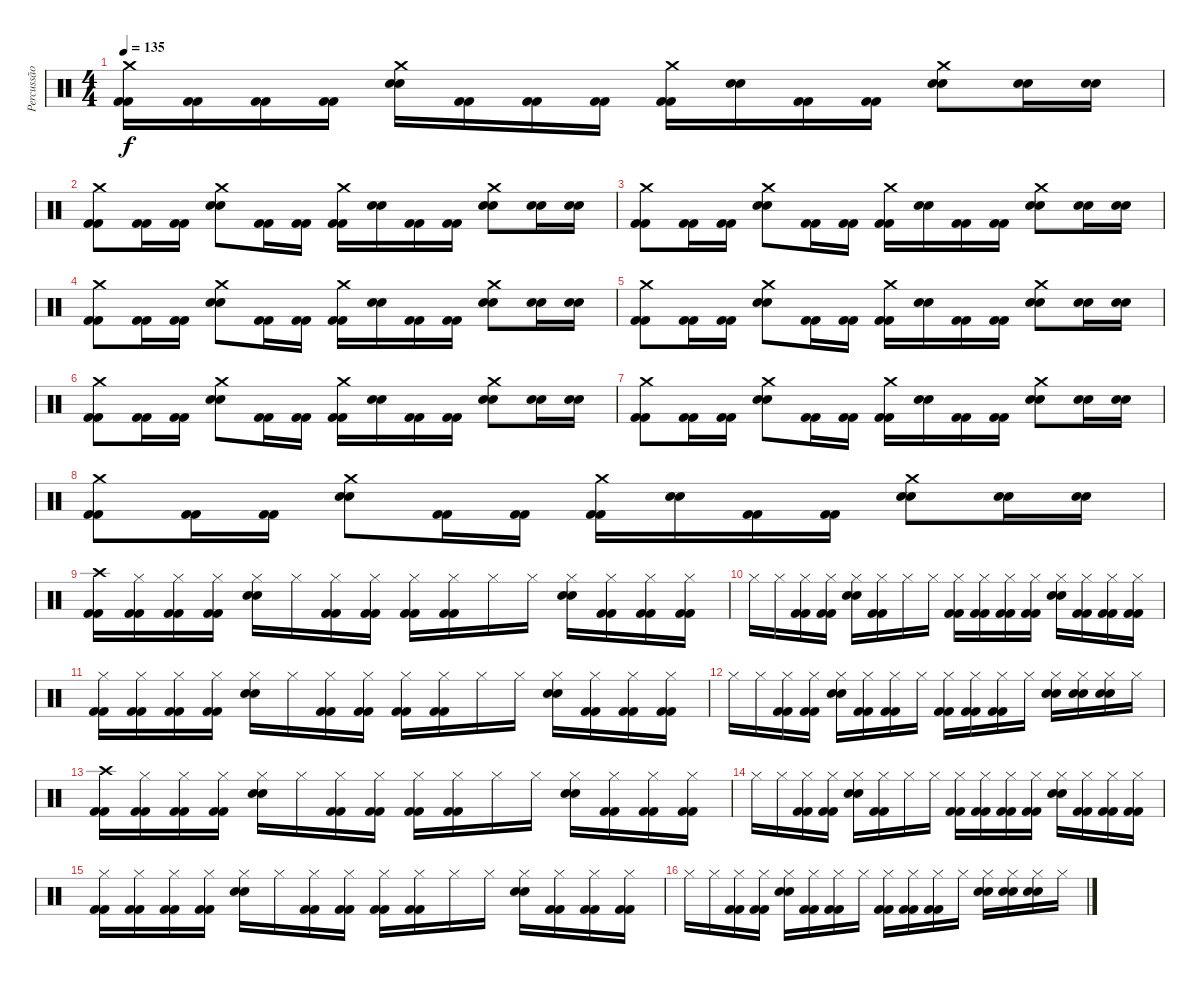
\track ("Percussão" "Percussão") {instrument percussion}
\staff {score}
\articulation defaults
\ts (4 4)
\tempo 135
\clef neutral
\ks c
("Crash medium (hit)" "Kick (hit) 2" "Kick (hit) 2").16{dy f} ("Kick (hit) 2" "Kick (hit) 2").16 ("Kick (hit) 2" "Kick (hit) 2").16 ("Kick (hit) 2" "Kick (hit) 2").16 ("Crash medium (hit)" "Electric Snare (hit)" "Electric Snare (hit)").16 ("Kick (hit) 2" "Kick (hit) 2").16 ("Kick (hit) 2" "Kick (hit) 2").16 ("Kick (hit) 2" "Kick (hit) 2").16 ("Crash medium (hit)" "Kick (hit) 2" "Kick (hit) 2").16 ("Electric Snare (hit)" "Electric Snare (hit)").16 ("Kick (hit) 2" "Kick (hit) 2").16 ("Kick (hit) 2" "Kick (hit) 2").16 ("Crash medium (hit)" "Electric Snare (hit)" "Electric Snare (hit)").8 ("Electric Snare (hit)" "Electric Snare (hit)").16 ("Electric Snare (hit)" "Electric Snare (hit)").16 |
("Crash medium (hit)" "Kick (hit) 2" "Kick (hit) 2").8 ("Kick (hit) 2" "Kick (hit) 2").16 ("Kick (hit) 2" "Kick (hit) 2").16 ("Crash medium (hit)" "Electric Snare (hit)" "Electric Snare (hit)").8 ("Kick (hit) 2" "Kick (hit) 2").16 ("Kick (hit) 2" "Kick (hit) 2").16 ("Crash medium (hit)" "Kick (hit) 2" "Kick (hit) 2").16 ("Electric Snare (hit)" "Electric Snare (hit)").16 ("Kick (hit) 2" "Kick (hit) 2").16 ("Kick (hit) 2" "Kick (hit) 2").16 ("Crash medium (hit)" "Electric Snare (hit)" "Electric Snare (hit)").8 ("Electric Snare (hit)" "Electric Snare (hit)").16 ("Electric Snare (hit)" "Electric Snare (hit)").16 |
("Crash medium (hit)" "Kick (hit) 2" "Kick (hit) 2").8 ("Kick (hit) 2" "Kick (hit) 2").16 ("Kick (hit) 2" "Kick (hit) 2").16 ("Crash medium (hit)" "Electric Snare (hit)" "Electric Snare (hit)").8 ("Kick (hit) 2" "Kick (hit) 2").16 ("Kick (hit) 2" "Kick (hit) 2").16 ("Crash medium (hit)" "Kick (hit) 2" "Kick (hit) 2").16 ("Electric Snare (hit)" "Electric Snare (hit)").16 ("Kick (hit) 2" "Kick (hit) 2").16 ("Kick (hit) 2" "Kick (hit) 2").16 ("Crash medium (hit)" "Electric Snare (hit)" "Electric Snare (hit)").8 ("Electric Snare (hit)" "Electric Snare (hit)").16 ("Electric Snare (hit)" "Electric Snare (hit)").16 |
("Crash medium (hit)" "Kick (hit) 2" "Kick (hit) 2").8 ("Kick (hit) 2" "Kick (hit) 2").16 ("Kick (hit) 2" "Kick (hit) 2").16 ("Crash medium (hit)" "Electric Snare (hit)" "Electric Snare (hit)").8 ("Kick (hit) 2" "Kick (hit) 2").16 ("Kick (hit) 2" "Kick (hit) 2").16 ("Crash medium (hit)" "Kick (hit) 2" "Kick (hit) 2").16 ("Electric Snare (hit)" "Electric Snare (hit)").16 ("Kick (hit) 2" "Kick (hit) 2").16 ("Kick (hit) 2" "Kick (hit) 2").16 ("Crash medium (hit)" "Electric Snare (hit)" "Electric Snare (hit)").8 ("Electric Snare (hit)" "Electric Snare (hit)").16 ("Electric Snare (hit)" "Electric Snare (hit)").16 |
("Crash medium (hit)" "Kick (hit) 2" "Kick (hit) 2").8 ("Kick (hit) 2" "Kick (hit) 2").16 ("Kick (hit) 2" "Kick (hit) 2").16 ("Crash medium (hit)" "Electric Snare (hit)" "Electric Snare (hit)").8 ("Kick (hit) 2" "Kick (hit) 2").16 ("Kick (hit) 2" "Kick (hit) 2").16 ("Crash medium (hit)" "Kick (hit) 2" "Kick (hit) 2").16 ("Electric Snare (hit)" "Electric Snare (hit)").16 ("Kick (hit) 2" "Kick (hit) 2").16 ("Kick (hit) 2" "Kick (hit) 2").16 ("Crash medium (hit)" "Electric Snare (hit)" "Electric Snare (hit)").8 ("Electric Snare (hit)" "Electric Snare (hit)").16 ("Electric Snare (hit)" "Electric Snare (hit)").16 |
("Crash medium (hit)" "Kick (hit) 2" "Kick (hit) 2").8 ("Kick (hit) 2" "Kick (hit) 2").16 ("Kick (hit) 2" "Kick (hit) 2").16 ("Crash medium (hit)" "Electric Snare (hit)" "Electric Snare (hit)").8 ("Kick (hit) 2" "Kick (hit) 2").16 ("Kick (hit) 2" "Kick (hit) 2").16 ("Crash medium (hit)" "Kick (hit) 2" "Kick (hit) 2").16 ("Electric Snare (hit)" "Electric Snare (hit)").16 ("Kick (hit) 2" "Kick (hit) 2").16 ("Kick (hit) 2" "Kick (hit) 2").16 ("Crash medium (hit)" "Electric Snare (hit)" "Electric Snare (hit)").8 ("Electric Snare (hit)" "Electric Snare (hit)").16 ("Electric Snare (hit)" "Electric Snare (hit)").16 |
("Crash medium (hit)" "Kick (hit) 2" "Kick (hit) 2").8 ("Kick (hit) 2" "Kick (hit) 2").16 ("Kick (hit) 2" "Kick (hit) 2").16 ("Crash medium (hit)" "Electric Snare (hit)" "Electric Snare (hit)").8 ("Kick (hit) 2" "Kick (hit) 2").16 ("Kick (hit) 2" "Kick (hit) 2").16 ("Crash medium (hit)" "Kick (hit) 2" "Kick (hit) 2").16 ("Electric Snare (hit)" "Electric Snare (hit)").16 ("Kick (hit) 2" "Kick (hit) 2").16 ("Kick (hit) 2" "Kick (hit) 2").16 ("Crash medium (hit)" "Electric Snare (hit)" "Electric Snare (hit)").8 ("Electric Snare (hit)" "Electric Snare (hit)").16 ("Electric Snare (hit)" "Electric Snare (hit)").16 |
("Crash medium (hit)" "Kick (hit) 2" "Kick (hit) 2").8 ("Kick (hit) 2" "Kick (hit) 2").16 ("Kick (hit) 2" "Kick (hit) 2").16 ("Crash medium (hit)" "Electric Snare (hit)" "Electric Snare (hit)").8 ("Kick (hit) 2" "Kick (hit) 2").16 ("Kick (hit) 2" "Kick (hit) 2").16 ("Crash medium (hit)" "Kick (hit) 2" "Kick (hit) 2").16 ("Electric Snare (hit)" "Electric Snare (hit)").16 ("Kick (hit) 2" "Kick (hit) 2").16 ("Kick (hit) 2" "Kick (hit) 2").16 ("Crash medium (hit)" "Electric Snare (hit)" "Electric Snare (hit)").8 ("Electric Snare (hit)" "Electric Snare (hit)").16 ("Electric Snare (hit)" "Electric Snare (hit)").16 |
("Crash high (hit)" "Kick (hit) 2" "Kick (hit) 2").16 ("Hi-Hat (closed)" "Kick (hit) 2" "Kick (hit) 2").16 ("Hi-Hat (closed)" "Kick (hit) 2" "Kick (hit) 2").16 ("Hi-Hat (closed)" "Kick (hit) 2" "Kick (hit) 2").16 ("Hi-Hat (closed)" "Electric Snare (hit)" "Electric Snare (hit)").16 "Hi-Hat (closed)".16 ("Hi-Hat (closed)" "Kick (hit) 2" "Kick (hit) 2").16 ("Hi-Hat (closed)" "Kick (hit) 2" "Kick (hit) 2").16 ("Hi-Hat (closed)" "Kick (hit) 2" "Kick (hit) 2").16 ("Hi-Hat (closed)" "Kick (hit) 2" "Kick (hit) 2").16 "Hi-Hat (closed)".16 "Hi-Hat (closed)".16 ("Hi-Hat (closed)" "Electric Snare (hit)" "Electric Snare (hit)").16 ("Hi-Hat (closed)" "Kick (hit) 2" "Kick (hit) 2").16 ("Hi-Hat (closed)" "Kick (hit) 2" "Kick (hit) 2").16 ("Hi-Hat (closed)" "Kick (hit) 2" "Kick (hit) 2").16 |
"Hi-Hat (closed)".16 "Hi-Hat (closed)".16 ("Hi-Hat (closed)" "Kick (hit) 2" "Kick (hit) 2").16 ("Hi-Hat (closed)" "Kick (hit) 2" "Kick (hit) 2").16 ("Hi-Hat (closed)" "Electric Snare (hit)" "Electric Snare (hit)").16 ("Hi-Hat (closed)" "Kick (hit) 2" "Kick (hit) 2").16 "Hi-Hat (closed)".16 "Hi-Hat (closed)".16 ("Hi-Hat (closed)" "Kick (hit) 2" "Kick (hit) 2").16 ("Hi-Hat (closed)" "Kick (hit) 2" "Kick (hit) 2").16 ("Hi-Hat (closed)" "Kick (hit) 2" "Kick (hit) 2").16 ("Hi-Hat (closed)" "Kick (hit) 2" "Kick (hit) 2").16 ("Hi-Hat (closed)" "Electric Snare (hit)" "Electric Snare (hit)").16 ("Hi-Hat (closed)" "Kick (hit) 2" "Kick (hit) 2").16 ("Hi-Hat (closed)" "Kick (hit) 2" "Kick (hit) 2").16 ("Hi-Hat (closed)" "Kick (hit) 2" "Kick (hit) 2").16 |
("Hi-Hat (closed)" "Kick (hit) 2" "Kick (hit) 2").16 ("Hi-Hat (closed)" "Kick (hit) 2" "Kick (hit) 2").16 ("Hi-Hat (closed)" "Kick (hit) 2" "Kick (hit) 2").16 ("Hi-Hat (closed)" "Kick (hit) 2" "Kick (hit) 2").16 ("Hi-Hat (closed)" "Electric Snare (hit)" "Electric Snare (hit)").16 "Hi-Hat (closed)".16 ("Hi-Hat (closed)" "Kick (hit) 2" "Kick (hit) 2").16 ("Hi-Hat (closed)" "Kick (hit) 2" "Kick (hit) 2").16 ("Hi-Hat (closed)" "Kick (hit) 2" "Kick (hit) 2").16 ("Hi-Hat (closed)" "Kick (hit) 2" "Kick (hit) 2").16 "Hi-Hat (closed)".16 "Hi-Hat (closed)".16 ("Hi-Hat (closed)" "Electric Snare (hit)" "Electric Snare (hit)").16 ("Hi-Hat (closed)" "Kick (hit) 2" "Kick (hit) 2").16 ("Hi-Hat (closed)" "Kick (hit) 2" "Kick (hit) 2").16 ("Hi-Hat (closed)" "Kick (hit) 2" "Kick (hit) 2").16 |
"Hi-Hat (closed)".16 "Hi-Hat (closed)".16 ("Hi-Hat (closed)" "Kick (hit) 2" "Kick (hit) 2").16 ("Hi-Hat (closed)" "Kick (hit) 2" "Kick (hit) 2").16 ("Hi-Hat (closed)" "Electric Snare (hit)" "Electric Snare (hit)").16 ("Hi-Hat (closed)" "Kick (hit) 2" "Kick (hit) 2").16 ("Hi-Hat (closed)" "Kick (hit) 2" "Kick (hit) 2").16 "Hi-Hat (closed)".16 ("Hi-Hat (closed)" "Kick (hit) 2" "Kick (hit) 2").16 ("Hi-Hat (closed)" "Kick (hit) 2" "Kick (hit) 2").16 ("Hi-Hat (closed)" "Kick (hit) 2" "Kick (hit) 2").16 "Hi-Hat (closed)".16 ("Hi-Hat (closed)" "Electric Snare (hit)" "Electric Snare (hit)").16 ("Hi-Hat (closed)" "Electric Snare (hit)" "Electric Snare (hit)").16 ("Hi-Hat (closed)" "Electric Snare (hit)" "Electric Snare (hit)").16 "Hi-Hat (closed)".16 |
("Crash high (hit)" "Kick (hit) 2" "Kick (hit) 2").16 ("Hi-Hat (closed)" "Kick (hit) 2" "Kick (hit) 2").16 ("Hi-Hat (closed)" "Kick (hit) 2" "Kick (hit) 2").16 ("Hi-Hat (closed)" "Kick (hit) 2" "Kick (hit) 2").16 ("Hi-Hat (closed)" "Electric Snare (hit)" "Electric Snare (hit)").16 "Hi-Hat (closed)".16 ("Hi-Hat (closed)" "Kick (hit) 2" "Kick (hit) 2").16 ("Hi-Hat (closed)" "Kick (hit) 2" "Kick (hit) 2").16 ("Hi-Hat (closed)" "Kick (hit) 2" "Kick (hit) 2").16 ("Hi-Hat (closed)" "Kick (hit) 2" "Kick (hit) 2").16 "Hi-Hat (closed)".16 "Hi-Hat (closed)".16 ("Hi-Hat (closed)" "Electric Snare (hit)" "Electric Snare (hit)").16 ("Hi-Hat (closed)" "Kick (hit) 2" "Kick (hit) 2").16 ("Hi-Hat (closed)" "Kick (hit) 2" "Kick (hit) 2").16 ("Hi-Hat (closed)" "Kick (hit) 2" "Kick (hit) 2").16 |
"Hi-Hat (closed)".16 "Hi-Hat (closed)".16 ("Hi-Hat (closed)" "Kick (hit) 2" "Kick (hit) 2").16 ("Hi-Hat (closed)" "Kick (hit) 2" "Kick (hit) 2").16 ("Hi-Hat (closed)" "Electric Snare (hit)" "Electric Snare (hit)").16 ("Hi-Hat (closed)" "Kick (hit) 2" "Kick (hit) 2").16 "Hi-Hat (closed)".16 "Hi-Hat (closed)".16 ("Hi-Hat (closed)" "Kick (hit) 2" "Kick (hit) 2").16 ("Hi-Hat (closed)" "Kick (hit) 2" "Kick (hit) 2").16 ("Hi-Hat (closed)" "Kick (hit) 2" "Kick (hit) 2").16 ("Hi-Hat (closed)" "Kick (hit) 2" "Kick (hit) 2").16 ("Hi-Hat (closed)" "Electric Snare (hit)" "Electric Snare (hit)").16 ("Hi-Hat (closed)" "Kick (hit) 2" "Kick (hit) 2").16 ("Hi-Hat (closed)" "Kick (hit) 2" "Kick (hit) 2").16 ("Hi-Hat (closed)" "Kick (hit) 2" "Kick (hit) 2").16 |
("Hi-Hat (closed)" "Kick (hit) 2" "Kick (hit) 2").16 ("Hi-Hat (closed)" "Kick (hit) 2" "Kick (hit) 2").16 ("Hi-Hat (closed)" "Kick (hit) 2" "Kick (hit) 2").16 ("Hi-Hat (closed)" "Kick (hit) 2" "Kick (hit) 2").16 ("Hi-Hat (closed)" "Electric Snare (hit)" "Electric Snare (hit)").16 "Hi-Hat (closed)".16 ("Hi-Hat (closed)" "Kick (hit) 2" "Kick (hit) 2").16 ("Hi-Hat (closed)" "Kick (hit) 2" "Kick (hit) 2").16 ("Hi-Hat (closed)" "Kick (hit) 2" "Kick (hit) 2").16 ("Hi-Hat (closed)" "Kick (hit) 2" "Kick (hit) 2").16 "Hi-Hat (closed)".16 "Hi-Hat (closed)".16 ("Hi-Hat (closed)" "Electric Snare (hit)" "Electric Snare (hit)").16 ("Hi-Hat (closed)" "Kick (hit) 2" "Kick (hit) 2").16 ("Hi-Hat (closed)" "Kick (hit) 2" "Kick (hit) 2").16 ("Hi-Hat (closed)" "Kick (hit) 2" "Kick (hit) 2").16 |
"Hi-Hat (closed)".16 "Hi-Hat (closed)".16 ("Hi-Hat (closed)" "Kick (hit) 2" "Kick (hit) 2").16 ("Hi-Hat (closed)" "Kick (hit) 2" "Kick (hit) 2").16 ("Hi-Hat (closed)" "Electric Snare (hit)" "Electric Snare (hit)").16 ("Hi-Hat (closed)" "Kick (hit) 2" "Kick (hit) 2").16 ("Hi-Hat (closed)" "Kick (hit) 2" "Kick (hit) 2").16 "Hi-Hat (closed)".16 ("Hi-Hat (closed)" "Kick (hit) 2" "Kick (hit) 2").16 ("Hi-Hat (closed)" "Kick (hit) 2" "Kick (hit) 2").16 ("Hi-Hat (closed)" "Kick (hit) 2" "Kick (hit) 2").16 "Hi-Hat (closed)".16 ("Hi-Hat (closed)" "Electric Snare (hit)" "Electric Snare (hit)").16 ("Hi-Hat (closed)" "Electric Snare (hit)" "Electric Snare (hit)").16 ("Hi-Hat (closed)" "Electric Snare (hit)" "Electric Snare (hit)").16 "Hi-Hat (closed)".16
